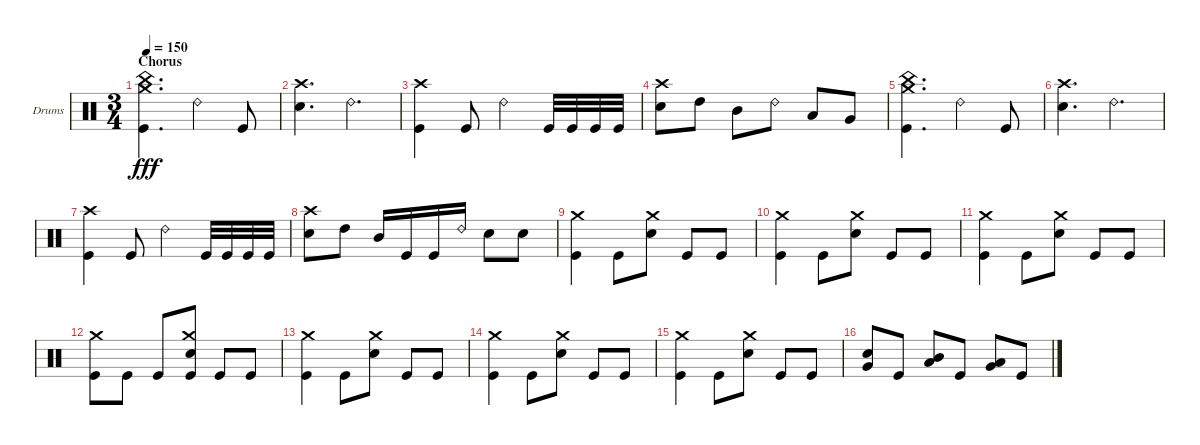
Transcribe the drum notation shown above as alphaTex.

\defaultSystemsLayout 4
\bracketExtendMode groupsimilarinstruments
\firstSystemTrackNameOrientation horizontal
\otherSystemsTrackNameOrientation horizontal
\track ("Chris Adler" "Drums") {instrument percussion}
\staff {score}
\articulation defaults
\ts (3 4)
\section ("" "Chorus")
\tempo 150
\clef neutral
\ks c
("Kick (hit)" "China (hit)" "Crash medium (hit)").4{d dy fff} "Ride (bell) 2".4 "Kick (hit)".8 |
("Snare (hit) 2" "Crash high (hit)").4{d} "Ride (bell) 2".4{d} |
("Kick (hit)" "Crash high (hit)").4 "Kick (hit)".8 "Ride (bell) 2".4 "Kick (hit)".32 "Kick (hit)".32 "Kick (hit)".32 "Kick (hit)".32 |
("Snare (hit) 2" "Crash high (hit)").8 "High Tom (hit)".8 "Mid Tom (hit)".8 "Ride (bell) 2".8 "Low Tom (hit)".8 "Very Low Tom (hit)".8 |
("Kick (hit)" "China (hit)" "Crash medium (hit)").4{d} "Ride (bell) 2".4 "Kick (hit)".8 |
("Snare (hit) 2" "Crash high (hit)").4{d} "Ride (bell) 2".4{d} |
("Kick (hit)" "Crash high (hit)").4 "Kick (hit)".8 "Ride (bell) 2".4 "Kick (hit)".32 "Kick (hit)".32 "Kick (hit)".32 "Kick (hit)".32 |
("Snare (hit) 2" "Crash high (hit)").8 "High Tom (hit)".8 "Mid Tom (hit)".16 "Kick (hit)".16 "Kick (hit)".16 "Ride (bell) 2".16 "Snare (hit) 2".8 "Snare (hit) 2".8 |
("Kick (hit)" "Crash medium (hit)").4 "Kick (hit)".8 ("Snare (hit) 2" "Crash medium (hit)").8 "Kick (hit)".8 "Kick (hit)".8 |
("Kick (hit)" "Crash medium (hit)").4 "Kick (hit)".8 ("Snare (hit) 2" "Crash medium (hit)").8 "Kick (hit)".8 "Kick (hit)".8 |
("Kick (hit)" "Crash medium (hit)").4 "Kick (hit)".8 ("Snare (hit) 2" "Crash medium (hit)").8 "Kick (hit)".8 "Kick (hit)".8 |
("Kick (hit)" "Crash medium (hit)").8 "Kick (hit)".8 "Kick (hit)".8 ("Snare (hit) 2" "Crash medium (hit)" "Kick (hit)").8 "Kick (hit)".8 "Kick (hit)".8 |
("Kick (hit)" "Crash medium (hit)").4 "Kick (hit)".8 ("Snare (hit) 2" "Crash medium (hit)").8 "Kick (hit)".8 "Kick (hit)".8 |
("Kick (hit)" "Crash medium (hit)").4 "Kick (hit)".8 ("Snare (hit) 2" "Crash medium (hit)").8 "Kick (hit)".8 "Kick (hit)".8 |
("Kick (hit)" "Crash medium (hit)").4 "Kick (hit)".8 ("Snare (hit) 2" "Crash medium (hit)").8 "Kick (hit)".8 "Kick (hit)".8 |
("Snare (hit) 2" "Very Low Tom (hit)").8 "Kick (hit)".8 ("Mid Tom (hit)" "Low Tom (hit)").8 "Kick (hit)".8 ("Low Tom (hit)" "Very Low Tom (hit)").8 "Kick (hit)".8
